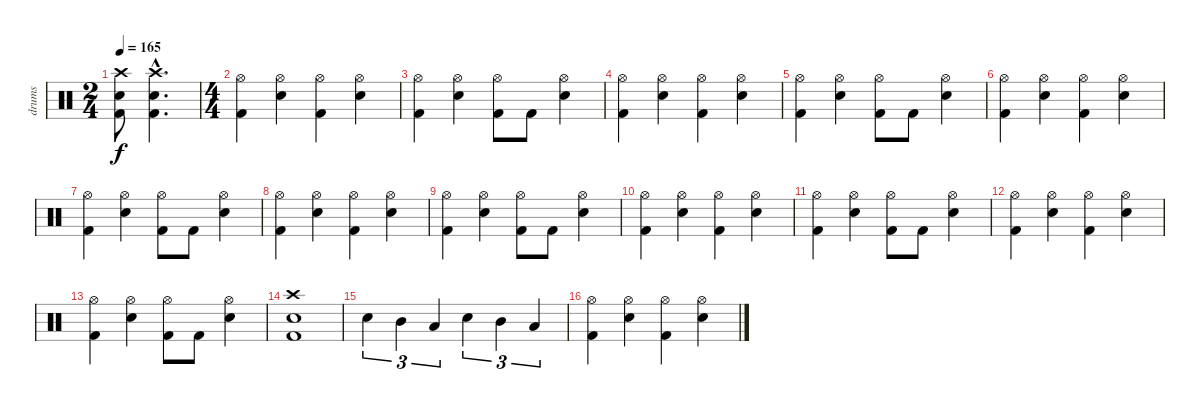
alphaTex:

\track ("drums" "drums") {instrument percussion}
\staff {score}
\articulation defaults
\ts (2 4)
\tempo 165
\clef neutral
\ks c
("Crash high (hit)" "Electric Snare (hit)" "Kick (hit) 2").8{dy f} ("Crash high (hit)"{hac} "Electric Snare (hit)"{hac} "Kick (hit) 2"{hac}).4{d} |
\ts (4 4)
("Hi-Hat (open)" "Kick (hit) 2").4 ("Hi-Hat (open)" "Electric Snare (hit)").4 ("Hi-Hat (open)" "Kick (hit) 2").4 ("Hi-Hat (open)" "Electric Snare (hit)").4 |
("Hi-Hat (open)" "Kick (hit) 2").4 ("Hi-Hat (open)" "Electric Snare (hit)").4 ("Hi-Hat (open)" "Kick (hit) 2").8 "Kick (hit) 2".8 ("Hi-Hat (open)" "Electric Snare (hit)").4 |
("Hi-Hat (open)" "Kick (hit) 2").4 ("Hi-Hat (open)" "Electric Snare (hit)").4 ("Hi-Hat (open)" "Kick (hit) 2").4 ("Hi-Hat (open)" "Electric Snare (hit)").4 |
("Hi-Hat (open)" "Kick (hit) 2").4 ("Hi-Hat (open)" "Electric Snare (hit)").4 ("Hi-Hat (open)" "Kick (hit) 2").8 "Kick (hit) 2".8 ("Hi-Hat (open)" "Electric Snare (hit)").4 |
("Hi-Hat (open)" "Kick (hit) 2").4 ("Hi-Hat (open)" "Electric Snare (hit)").4 ("Hi-Hat (open)" "Kick (hit) 2").4 ("Hi-Hat (open)" "Electric Snare (hit)").4 |
("Hi-Hat (open)" "Kick (hit) 2").4 ("Hi-Hat (open)" "Electric Snare (hit)").4 ("Hi-Hat (open)" "Kick (hit) 2").8 "Kick (hit) 2".8 ("Hi-Hat (open)" "Electric Snare (hit)").4 |
("Hi-Hat (open)" "Kick (hit) 2").4 ("Hi-Hat (open)" "Electric Snare (hit)").4 ("Hi-Hat (open)" "Kick (hit) 2").4 ("Hi-Hat (open)" "Electric Snare (hit)").4 |
("Hi-Hat (open)" "Kick (hit) 2").4 ("Hi-Hat (open)" "Electric Snare (hit)").4 ("Hi-Hat (open)" "Kick (hit) 2").8 "Kick (hit) 2".8 ("Hi-Hat (open)" "Electric Snare (hit)").4 |
("Hi-Hat (open)" "Kick (hit) 2").4 ("Hi-Hat (open)" "Electric Snare (hit)").4 ("Hi-Hat (open)" "Kick (hit) 2").4 ("Hi-Hat (open)" "Electric Snare (hit)").4 |
("Hi-Hat (open)" "Kick (hit) 2").4 ("Hi-Hat (open)" "Electric Snare (hit)").4 ("Hi-Hat (open)" "Kick (hit) 2").8 "Kick (hit) 2".8 ("Hi-Hat (open)" "Electric Snare (hit)").4 |
("Hi-Hat (open)" "Kick (hit) 2").4 ("Hi-Hat (open)" "Electric Snare (hit)").4 ("Hi-Hat (open)" "Kick (hit) 2").4 ("Hi-Hat (open)" "Electric Snare (hit)").4 |
("Hi-Hat (open)" "Kick (hit) 2").4 ("Hi-Hat (open)" "Electric Snare (hit)").4 ("Hi-Hat (open)" "Kick (hit) 2").8 "Kick (hit) 2".8 ("Hi-Hat (open)" "Electric Snare (hit)").4 |
("Crash high (hit)" "Electric Snare (hit)" "Kick (hit) 2").1 |
"Electric Snare (hit)".4{tu (3 2)} "Mid Tom (hit)".4{tu (3 2)} "Low Tom (hit)".4{tu (3 2)} "Electric Snare (hit)".4{tu (3 2)} "Mid Tom (hit)".4{tu (3 2)} "Low Tom (hit)".4{tu (3 2)} |
("Hi-Hat (open)" "Kick (hit) 2").4 ("Hi-Hat (open)" "Electric Snare (hit)").4 ("Hi-Hat (open)" "Kick (hit) 2").4 ("Hi-Hat (open)" "Electric Snare (hit)").4
